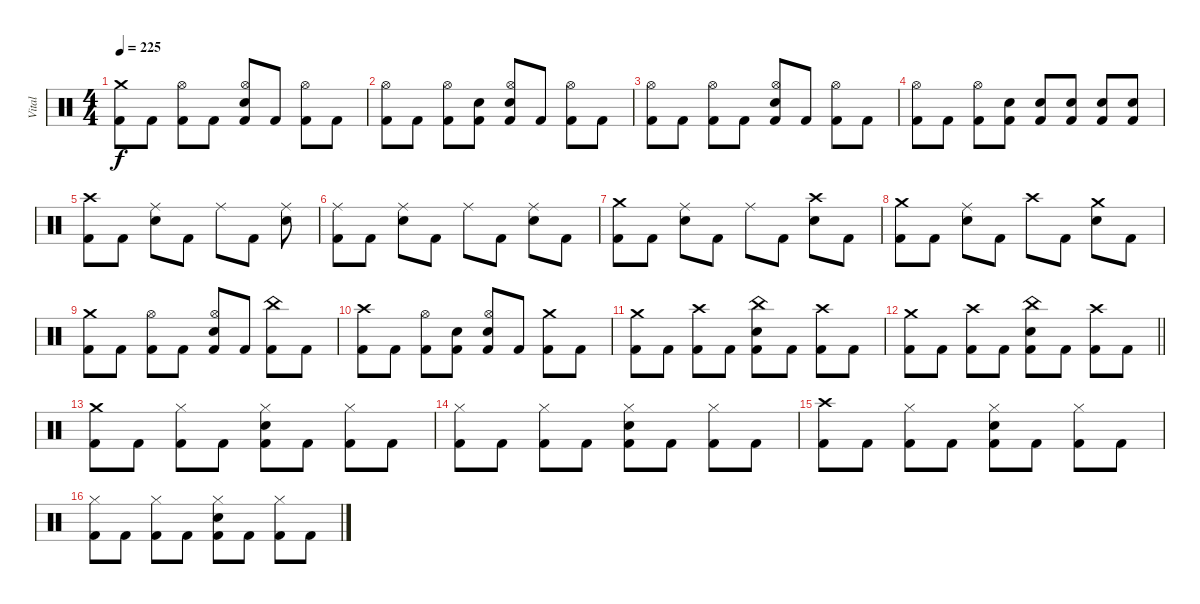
\track ("Vital" "Vital") {instrument percussion}
\staff {score}
\articulation defaults
\ts (4 4)
\tempo 225
\clef neutral
\ks c
("Crash medium (hit)" "Kick (hit) 2").8{dy f} "Kick (hit) 2".8 ("Hi-Hat (open)" "Kick (hit) 2").8 "Kick (hit) 2".8 ("Hi-Hat (open)" "Snare (hit) 2" "Kick (hit) 2").8 "Kick (hit) 2".8 ("Hi-Hat (open)" "Kick (hit) 2").8 "Kick (hit) 2".8 |
("Hi-Hat (open)" "Kick (hit) 2").8 "Kick (hit) 2".8 ("Hi-Hat (open)" "Kick (hit) 2").8 ("Snare (hit) 2" "Kick (hit) 2").8 ("Hi-Hat (open)" "Snare (hit) 2" "Kick (hit) 2").8 "Kick (hit) 2".8 ("Hi-Hat (open)" "Kick (hit) 2").8 "Kick (hit) 2".8 |
("Hi-Hat (open)" "Kick (hit) 2").8 "Kick (hit) 2".8 ("Hi-Hat (open)" "Kick (hit) 2").8 "Kick (hit) 2".8 ("Hi-Hat (open)" "Snare (hit) 2" "Kick (hit) 2").8 "Kick (hit) 2".8 ("Hi-Hat (open)" "Kick (hit) 2").8 "Kick (hit) 2".8 |
("Hi-Hat (open)" "Kick (hit) 2").8 "Kick (hit) 2".8 ("Hi-Hat (open)" "Kick (hit) 2").8 ("Snare (hit) 2" "Kick (hit) 2").8 ("Snare (hit) 2" "Kick (hit) 2").8 ("Snare (hit) 2" "Kick (hit) 2").8 ("Snare (hit) 2" "Kick (hit) 2").8 ("Snare (hit) 2" "Kick (hit) 2").8 |
("Crash high (hit)" "Kick (hit) 2").8 "Kick (hit) 2".8 ("Ride (middle)" "Snare (hit) 2").8 "Kick (hit) 2".8 "Ride (middle)".8 "Kick (hit) 2".8 ("Ride (middle)" "Snare (hit) 2").8 |
("Ride (middle)" "Kick (hit) 2").8 "Kick (hit) 2".8 ("Ride (middle)" "Snare (hit) 2").8 "Kick (hit) 2".8 "Ride (middle)".8 "Kick (hit) 2".8 ("Ride (middle)" "Snare (hit) 2").8 "Kick (hit) 2".8 |
("Crash medium (hit)" "Kick (hit) 2").8 "Kick (hit) 2".8 ("Ride (middle)" "Snare (hit) 2").8 "Kick (hit) 2".8 "Ride (middle)".8 "Kick (hit) 2".8 ("Crash high (hit)" "Snare (hit) 2").8 "Kick (hit) 2".8 |
("Crash medium (hit)" "Kick (hit) 2").8 "Kick (hit) 2".8 ("Ride (middle)" "Snare (hit) 2").8 "Kick (hit) 2".8 "Crash high (hit)".8 "Kick (hit) 2".8 ("Crash medium (hit)" "Snare (hit) 2").8 "Kick (hit) 2".8 |
("Crash medium (hit)" "Kick (hit) 2").8 "Kick (hit) 2".8 ("Hi-Hat (open)" "Kick (hit) 2").8 "Kick (hit) 2".8 ("Hi-Hat (open)" "Snare (hit) 2" "Kick (hit) 2").8 "Kick (hit) 2".8 ("China (hit)" "Kick (hit) 2").8 "Kick (hit) 2".8 |
("Crash high (hit)" "Kick (hit) 2").8 "Kick (hit) 2".8 ("Hi-Hat (open)" "Kick (hit) 2").8 ("Snare (hit) 2" "Kick (hit) 2").8 ("Hi-Hat (open)" "Snare (hit) 2" "Kick (hit) 2").8 "Kick (hit) 2".8 ("Crash medium (hit)" "Kick (hit) 2").8 "Kick (hit) 2".8 |
("Crash medium (hit)" "Kick (hit) 2").8 "Kick (hit) 2".8 ("Crash high (hit)" "Kick (hit) 2").8 "Kick (hit) 2".8 ("China (hit)" "Snare (hit) 2" "Kick (hit) 2").8 "Kick (hit) 2".8 ("Crash high (hit)" "Kick (hit) 2").8 "Kick (hit) 2".8 |
\barLineRight lightlight
("Crash medium (hit)" "Kick (hit) 2").8 "Kick (hit) 2".8 ("Crash high (hit)" "Kick (hit) 2").8 "Kick (hit) 2".8 ("China (hit)" "Snare (hit) 2" "Kick (hit) 2").8 "Kick (hit) 2".8 ("Crash high (hit)" "Kick (hit) 2").8 "Kick (hit) 2".8 |
("Crash medium (hit)" "Kick (hit) 2").8 "Kick (hit) 2".8 ("Hi-Hat (closed)" "Kick (hit) 2").8 "Kick (hit) 2".8 ("Hi-Hat (closed)" "Snare (hit) 2" "Kick (hit) 2").8 "Kick (hit) 2".8 ("Hi-Hat (closed)" "Kick (hit) 2").8 "Kick (hit) 2".8 |
("Hi-Hat (closed)" "Kick (hit) 2").8 "Kick (hit) 2".8 ("Hi-Hat (closed)" "Kick (hit) 2").8 "Kick (hit) 2".8 ("Hi-Hat (closed)" "Snare (hit) 2" "Kick (hit) 2").8 "Kick (hit) 2".8 ("Hi-Hat (closed)" "Kick (hit) 2").8 "Kick (hit) 2".8 |
("Crash high (hit)" "Kick (hit) 2").8 "Kick (hit) 2".8 ("Hi-Hat (closed)" "Kick (hit) 2").8 "Kick (hit) 2".8 ("Hi-Hat (closed)" "Snare (hit) 2" "Kick (hit) 2").8 "Kick (hit) 2".8 ("Hi-Hat (closed)" "Kick (hit) 2").8 "Kick (hit) 2".8 |
("Hi-Hat (closed)" "Kick (hit) 2").8 "Kick (hit) 2".8 ("Hi-Hat (closed)" "Kick (hit) 2").8 "Kick (hit) 2".8 ("Hi-Hat (closed)" "Snare (hit) 2" "Kick (hit) 2").8 "Kick (hit) 2".8 ("Hi-Hat (closed)" "Kick (hit) 2").8 "Kick (hit) 2".8
